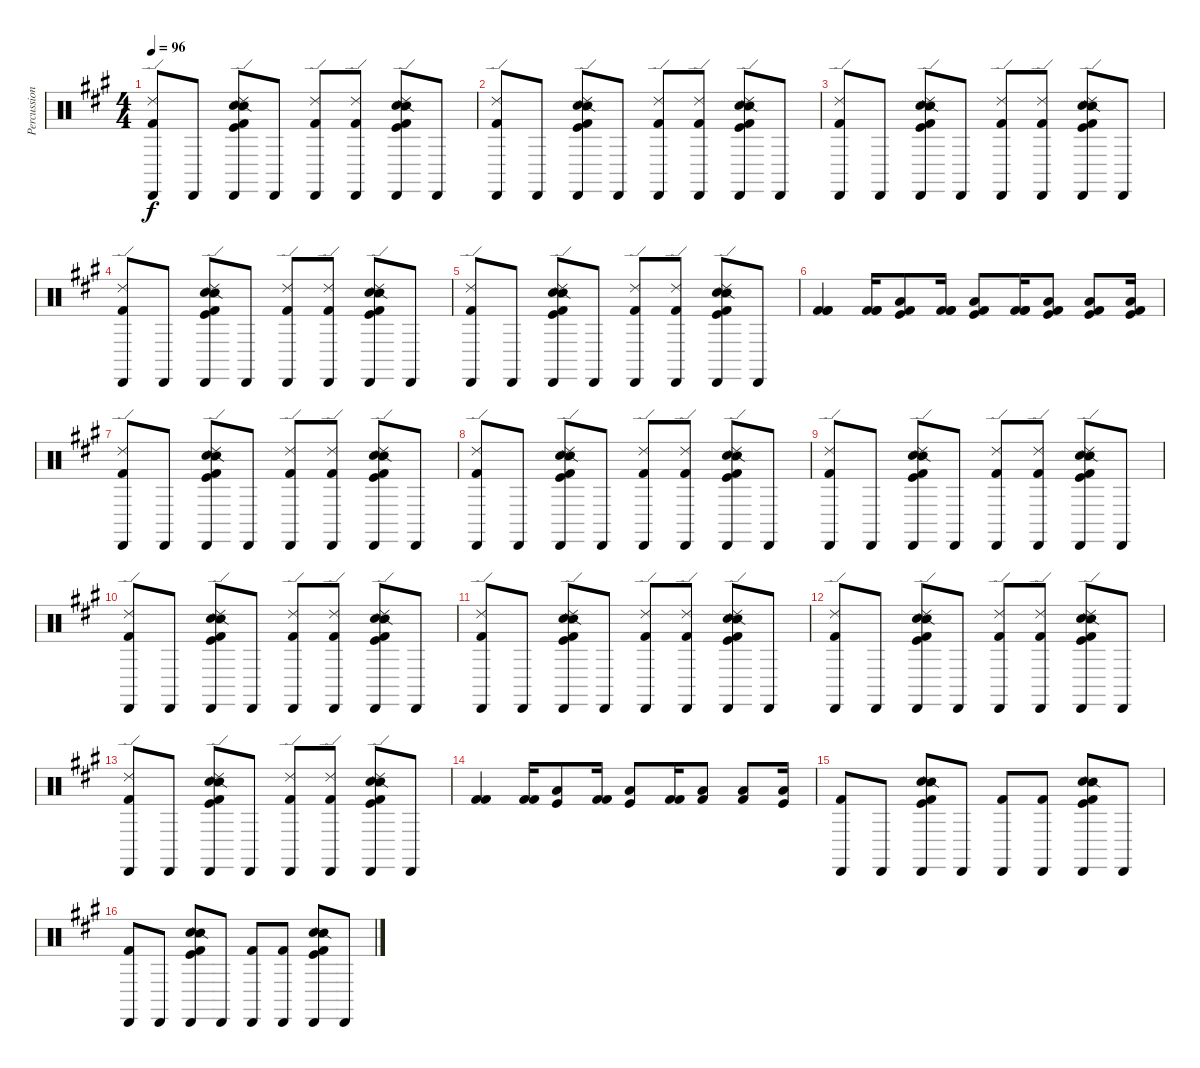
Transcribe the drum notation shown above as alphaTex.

\track ("Percussion" "Percussion") {instrument percussion}
\staff {score}
\articulation defaults
\ts (4 4)
\tempo 96
\clef neutral
\ks a
("Kick (hit) 2" "Cabasa (hit)" "Ride (edge) 2").8{dy f} "Cabasa (hit)".8 ("Hand Clap (hit)" "Snare (side stick) 2" "Kick (hit) 2" "Kick (hit)" "Cabasa (hit)" "Ride (edge) 2").8 "Cabasa (hit)".8 ("Kick (hit) 2" "Cabasa (hit)" "Ride (edge) 2").8 ("Kick (hit) 2" "Cabasa (hit)" "Ride (edge) 2").8 ("Hand Clap (hit)" "Snare (side stick) 2" "Kick (hit) 2" "Kick (hit)" "Cabasa (hit)" "Ride (edge) 2").8 "Cabasa (hit)".8 |
("Kick (hit) 2" "Cabasa (hit)" "Ride (edge) 2").8 "Cabasa (hit)".8 ("Hand Clap (hit)" "Snare (side stick) 2" "Kick (hit) 2" "Kick (hit)" "Cabasa (hit)" "Ride (edge) 2").8 "Cabasa (hit)".8 ("Kick (hit) 2" "Cabasa (hit)" "Ride (edge) 2").8 ("Kick (hit) 2" "Cabasa (hit)" "Ride (edge) 2").8 ("Hand Clap (hit)" "Snare (side stick) 2" "Kick (hit) 2" "Kick (hit)" "Cabasa (hit)" "Ride (edge) 2").8 "Cabasa (hit)".8 |
("Kick (hit) 2" "Cabasa (hit)" "Ride (edge) 2").8 "Cabasa (hit)".8 ("Hand Clap (hit)" "Snare (side stick) 2" "Kick (hit) 2" "Kick (hit)" "Cabasa (hit)" "Ride (edge) 2").8 "Cabasa (hit)".8 ("Kick (hit) 2" "Cabasa (hit)" "Ride (edge) 2").8 ("Kick (hit) 2" "Cabasa (hit)" "Ride (edge) 2").8 ("Hand Clap (hit)" "Snare (side stick) 2" "Kick (hit) 2" "Kick (hit)" "Cabasa (hit)" "Ride (edge) 2").8 "Cabasa (hit)".8 |
("Kick (hit) 2" "Cabasa (hit)" "Ride (edge) 2").8 "Cabasa (hit)".8 ("Hand Clap (hit)" "Snare (side stick) 2" "Kick (hit) 2" "Kick (hit)" "Cabasa (hit)" "Ride (edge) 2").8 "Cabasa (hit)".8 ("Kick (hit) 2" "Cabasa (hit)" "Ride (edge) 2").8 ("Kick (hit) 2" "Cabasa (hit)" "Ride (edge) 2").8 ("Hand Clap (hit)" "Snare (side stick) 2" "Kick (hit) 2" "Kick (hit)" "Cabasa (hit)" "Ride (edge) 2").8 "Cabasa (hit)".8 |
("Kick (hit) 2" "Cabasa (hit)" "Ride (edge) 2").8 "Cabasa (hit)".8 ("Hand Clap (hit)" "Snare (side stick) 2" "Kick (hit) 2" "Kick (hit)" "Cabasa (hit)" "Ride (edge) 2").8 "Cabasa (hit)".8 ("Kick (hit) 2" "Cabasa (hit)" "Ride (edge) 2").8 ("Kick (hit) 2" "Cabasa (hit)" "Ride (edge) 2").8 ("Hand Clap (hit)" "Snare (side stick) 2" "Kick (hit) 2" "Kick (hit)" "Cabasa (hit)" "Ride (edge) 2").8 "Cabasa (hit)".8 |
("Kick (hit) 2" "Kick (hit) 2" "Kick (hit) 2").4 ("Kick (hit) 2" "Kick (hit) 2" "Kick (hit) 2").16 ("Low Floor Tom (hit)" "Kick (hit)" "Kick (hit) 2").8 ("Kick (hit) 2" "Kick (hit) 2" "Kick (hit) 2").16 ("Low Floor Tom (hit)" "Kick (hit)" "Kick (hit) 2").8 ("Kick (hit) 2" "Kick (hit) 2" "Kick (hit) 2").16 ("Low Floor Tom (hit)" "Kick (hit) 2" "Kick (hit)").8 ("Low Floor Tom (hit)" "Kick (hit) 2" "Kick (hit)").8 ("Low Floor Tom (hit)" "Kick (hit)" "Kick (hit) 2").16 |
("Kick (hit) 2" "Cabasa (hit)" "Ride (edge) 2").8 "Cabasa (hit)".8 ("Hand Clap (hit)" "Snare (side stick) 2" "Kick (hit) 2" "Kick (hit)" "Cabasa (hit)" "Ride (edge) 2").8 "Cabasa (hit)".8 ("Kick (hit) 2" "Cabasa (hit)" "Ride (edge) 2").8 ("Kick (hit) 2" "Cabasa (hit)" "Ride (edge) 2").8 ("Hand Clap (hit)" "Snare (side stick) 2" "Kick (hit) 2" "Kick (hit)" "Cabasa (hit)" "Ride (edge) 2").8 "Cabasa (hit)".8 |
("Kick (hit) 2" "Cabasa (hit)" "Ride (edge) 2").8 "Cabasa (hit)".8 ("Hand Clap (hit)" "Snare (side stick) 2" "Kick (hit) 2" "Kick (hit)" "Cabasa (hit)" "Ride (edge) 2").8 "Cabasa (hit)".8 ("Kick (hit) 2" "Cabasa (hit)" "Ride (edge) 2").8 ("Kick (hit) 2" "Cabasa (hit)" "Ride (edge) 2").8 ("Hand Clap (hit)" "Snare (side stick) 2" "Kick (hit) 2" "Kick (hit)" "Cabasa (hit)" "Ride (edge) 2").8 "Cabasa (hit)".8 |
("Kick (hit) 2" "Cabasa (hit)" "Ride (edge) 2").8 "Cabasa (hit)".8 ("Hand Clap (hit)" "Snare (side stick) 2" "Kick (hit) 2" "Kick (hit)" "Cabasa (hit)" "Ride (edge) 2").8 "Cabasa (hit)".8 ("Kick (hit) 2" "Cabasa (hit)" "Ride (edge) 2").8 ("Kick (hit) 2" "Cabasa (hit)" "Ride (edge) 2").8 ("Hand Clap (hit)" "Snare (side stick) 2" "Kick (hit) 2" "Kick (hit)" "Cabasa (hit)" "Ride (edge) 2").8 "Cabasa (hit)".8 |
("Kick (hit) 2" "Cabasa (hit)" "Ride (edge) 2").8 "Cabasa (hit)".8 ("Hand Clap (hit)" "Snare (side stick) 2" "Kick (hit) 2" "Kick (hit)" "Cabasa (hit)" "Ride (edge) 2").8 "Cabasa (hit)".8 ("Kick (hit) 2" "Cabasa (hit)" "Ride (edge) 2").8 ("Kick (hit) 2" "Cabasa (hit)" "Ride (edge) 2").8 ("Hand Clap (hit)" "Snare (side stick) 2" "Kick (hit) 2" "Kick (hit)" "Cabasa (hit)" "Ride (edge) 2").8 "Cabasa (hit)".8 |
("Kick (hit) 2" "Cabasa (hit)" "Ride (edge) 2").8 "Cabasa (hit)".8 ("Hand Clap (hit)" "Snare (side stick) 2" "Kick (hit) 2" "Kick (hit)" "Cabasa (hit)" "Ride (edge) 2").8 "Cabasa (hit)".8 ("Kick (hit) 2" "Cabasa (hit)" "Ride (edge) 2").8 ("Kick (hit) 2" "Cabasa (hit)" "Ride (edge) 2").8 ("Hand Clap (hit)" "Snare (side stick) 2" "Kick (hit) 2" "Kick (hit)" "Cabasa (hit)" "Ride (edge) 2").8 "Cabasa (hit)".8 |
("Kick (hit) 2" "Cabasa (hit)" "Ride (edge) 2").8 "Cabasa (hit)".8 ("Hand Clap (hit)" "Snare (side stick) 2" "Kick (hit) 2" "Kick (hit)" "Cabasa (hit)" "Ride (edge) 2").8 "Cabasa (hit)".8 ("Kick (hit) 2" "Cabasa (hit)" "Ride (edge) 2").8 ("Kick (hit) 2" "Cabasa (hit)" "Ride (edge) 2").8 ("Hand Clap (hit)" "Snare (side stick) 2" "Kick (hit) 2" "Kick (hit)" "Cabasa (hit)" "Ride (edge) 2").8 "Cabasa (hit)".8 |
("Kick (hit) 2" "Cabasa (hit)" "Ride (edge) 2").8 "Cabasa (hit)".8 ("Hand Clap (hit)" "Snare (side stick) 2" "Kick (hit) 2" "Kick (hit)" "Cabasa (hit)" "Ride (edge) 2").8 "Cabasa (hit)".8 ("Kick (hit) 2" "Cabasa (hit)" "Ride (edge) 2").8 ("Kick (hit) 2" "Cabasa (hit)" "Ride (edge) 2").8 ("Hand Clap (hit)" "Snare (side stick) 2" "Kick (hit) 2" "Kick (hit)" "Cabasa (hit)" "Ride (edge) 2").8 "Cabasa (hit)".8 |
("Kick (hit) 2" "Kick (hit) 2").4 ("Kick (hit) 2" "Kick (hit) 2").16 ("Low Floor Tom (hit)" "Kick (hit)").8 ("Kick (hit) 2" "Kick (hit) 2").16 ("Low Floor Tom (hit)" "Kick (hit)").8 ("Kick (hit) 2" "Kick (hit) 2").16 ("Low Floor Tom (hit)" "Kick (hit) 2").8 ("Low Floor Tom (hit)" "Kick (hit) 2").8 ("Low Floor Tom (hit)" "Kick (hit)").16 |
("Kick (hit) 2" "Cabasa (hit)").8 "Cabasa (hit)".8 ("Hand Clap (hit)" "Snare (side stick) 2" "Kick (hit) 2" "Kick (hit)" "Cabasa (hit)").8 "Cabasa (hit)".8 ("Kick (hit) 2" "Cabasa (hit)").8 ("Kick (hit) 2" "Cabasa (hit)").8 ("Hand Clap (hit)" "Snare (side stick) 2" "Kick (hit) 2" "Kick (hit)" "Cabasa (hit)").8 "Cabasa (hit)".8 |
("Kick (hit) 2" "Cabasa (hit)").8 "Cabasa (hit)".8 ("Hand Clap (hit)" "Snare (side stick) 2" "Kick (hit) 2" "Kick (hit)" "Cabasa (hit)").8 "Cabasa (hit)".8 ("Kick (hit) 2" "Cabasa (hit)").8 ("Kick (hit) 2" "Cabasa (hit)").8 ("Hand Clap (hit)" "Snare (side stick) 2" "Kick (hit) 2" "Kick (hit)" "Cabasa (hit)").8 "Cabasa (hit)".8
